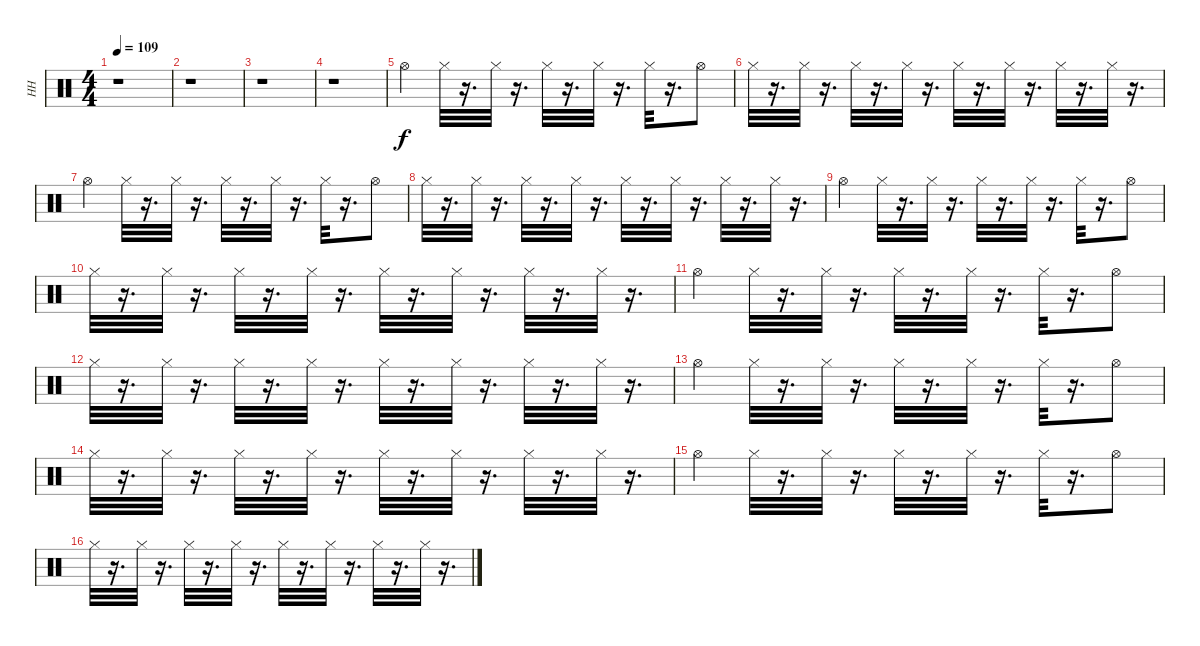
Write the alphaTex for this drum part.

\track ("HH" "HH") {instrument percussion}
\staff {score}
\articulation defaults
\ts (4 4)
\tempo 109
\clef neutral
\ks c
r.1{dy f} |
r.1 |
r.1 |
r.1 |
"Hi-Hat (open)".4 "Hi-Hat (closed)".32 r.16{d} "Hi-Hat (closed)".32 r.16{d} "Hi-Hat (closed)".32 r.16{d} "Hi-Hat (closed)".32 r.16{d} "Hi-Hat (closed)".32 r.16{d} "Hi-Hat (open)".8 |
"Hi-Hat (closed)".32 r.16{d} "Hi-Hat (closed)".32 r.16{d} "Hi-Hat (closed)".32 r.16{d} "Hi-Hat (closed)".32 r.16{d} "Hi-Hat (closed)".32 r.16{d} "Hi-Hat (closed)".32 r.16{d} "Hi-Hat (closed)".32 r.16{d} "Hi-Hat (closed)".32 r.16{d} |
"Hi-Hat (open)".4 "Hi-Hat (closed)".32 r.16{d} "Hi-Hat (closed)".32 r.16{d} "Hi-Hat (closed)".32 r.16{d} "Hi-Hat (closed)".32 r.16{d} "Hi-Hat (closed)".32 r.16{d} "Hi-Hat (open)".8 |
"Hi-Hat (closed)".32 r.16{d} "Hi-Hat (closed)".32 r.16{d} "Hi-Hat (closed)".32 r.16{d} "Hi-Hat (closed)".32 r.16{d} "Hi-Hat (closed)".32 r.16{d} "Hi-Hat (closed)".32 r.16{d} "Hi-Hat (closed)".32 r.16{d} "Hi-Hat (closed)".32 r.16{d} |
"Hi-Hat (open)".4 "Hi-Hat (closed)".32 r.16{d} "Hi-Hat (closed)".32 r.16{d} "Hi-Hat (closed)".32 r.16{d} "Hi-Hat (closed)".32 r.16{d} "Hi-Hat (closed)".32 r.16{d} "Hi-Hat (open)".8 |
"Hi-Hat (closed)".32 r.16{d} "Hi-Hat (closed)".32 r.16{d} "Hi-Hat (closed)".32 r.16{d} "Hi-Hat (closed)".32 r.16{d} "Hi-Hat (closed)".32 r.16{d} "Hi-Hat (closed)".32 r.16{d} "Hi-Hat (closed)".32 r.16{d} "Hi-Hat (closed)".32 r.16{d} |
"Hi-Hat (open)".4 "Hi-Hat (closed)".32 r.16{d} "Hi-Hat (closed)".32 r.16{d} "Hi-Hat (closed)".32 r.16{d} "Hi-Hat (closed)".32 r.16{d} "Hi-Hat (closed)".32 r.16{d} "Hi-Hat (open)".8 |
"Hi-Hat (closed)".32 r.16{d} "Hi-Hat (closed)".32 r.16{d} "Hi-Hat (closed)".32 r.16{d} "Hi-Hat (closed)".32 r.16{d} "Hi-Hat (closed)".32 r.16{d} "Hi-Hat (closed)".32 r.16{d} "Hi-Hat (closed)".32 r.16{d} "Hi-Hat (closed)".32 r.16{d} |
"Hi-Hat (open)".4 "Hi-Hat (closed)".32 r.16{d} "Hi-Hat (closed)".32 r.16{d} "Hi-Hat (closed)".32 r.16{d} "Hi-Hat (closed)".32 r.16{d} "Hi-Hat (closed)".32 r.16{d} "Hi-Hat (open)".8 |
"Hi-Hat (closed)".32 r.16{d} "Hi-Hat (closed)".32 r.16{d} "Hi-Hat (closed)".32 r.16{d} "Hi-Hat (closed)".32 r.16{d} "Hi-Hat (closed)".32 r.16{d} "Hi-Hat (closed)".32 r.16{d} "Hi-Hat (closed)".32 r.16{d} "Hi-Hat (closed)".32 r.16{d} |
"Hi-Hat (open)".4 "Hi-Hat (closed)".32 r.16{d} "Hi-Hat (closed)".32 r.16{d} "Hi-Hat (closed)".32 r.16{d} "Hi-Hat (closed)".32 r.16{d} "Hi-Hat (closed)".32 r.16{d} "Hi-Hat (open)".8 |
"Hi-Hat (closed)".32 r.16{d} "Hi-Hat (closed)".32 r.16{d} "Hi-Hat (closed)".32 r.16{d} "Hi-Hat (closed)".32 r.16{d} "Hi-Hat (closed)".32 r.16{d} "Hi-Hat (closed)".32 r.16{d} "Hi-Hat (closed)".32 r.16{d} "Hi-Hat (closed)".32 r.16{d}
